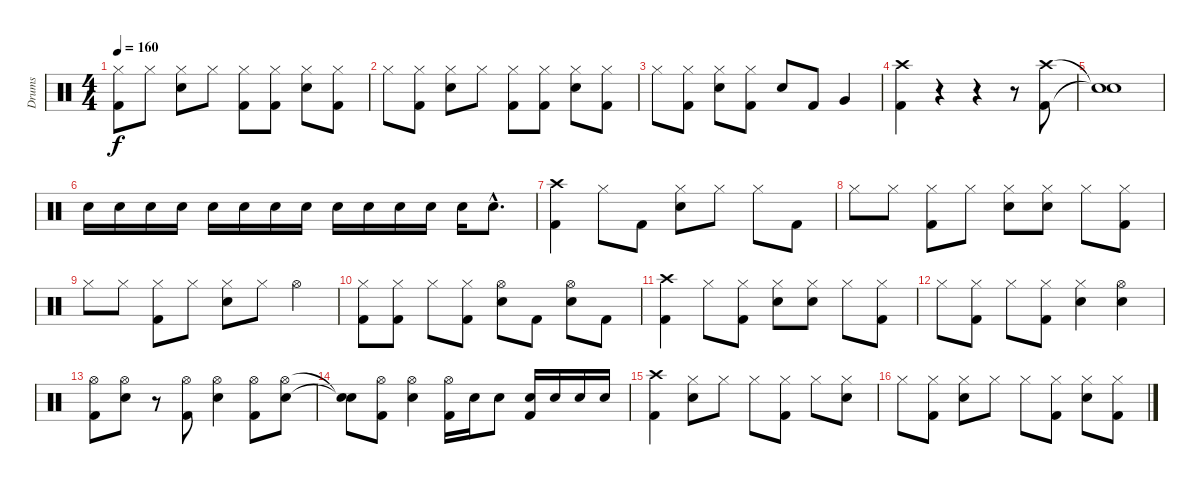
\track ("Drums" "Drums") {instrument percussion}
\staff {score}
\articulation defaults
\ts (4 4)
\tempo 160
\clef neutral
\ks c
("Hi-Hat (closed)" "Kick (hit) 2").8{dy f} "Hi-Hat (closed)".8 ("Hi-Hat (closed)" "Snare (hit) 2").8 "Hi-Hat (closed)".8 ("Hi-Hat (closed)" "Kick (hit) 2").8 ("Hi-Hat (closed)" "Kick (hit) 2").8 ("Hi-Hat (closed)" "Snare (hit) 2").8 ("Hi-Hat (closed)" "Kick (hit) 2").8 |
"Hi-Hat (closed)".8 ("Hi-Hat (closed)" "Kick (hit) 2").8 ("Hi-Hat (closed)" "Snare (hit) 2").8 "Hi-Hat (closed)".8 ("Hi-Hat (closed)" "Kick (hit) 2").8 ("Hi-Hat (closed)" "Kick (hit) 2").8 ("Hi-Hat (closed)" "Snare (hit) 2").8 ("Hi-Hat (closed)" "Kick (hit) 2").8 |
"Hi-Hat (closed)".8 ("Hi-Hat (closed)" "Kick (hit) 2").8 ("Hi-Hat (closed)" "Snare (hit) 2").8 ("Hi-Hat (closed)" "Kick (hit) 2").8 "Snare (hit) 2".8 "Kick (hit) 2".8 "Very Low Tom (hit)".4 |
("Crash high (hit)" "Kick (hit) 2").4 r.4 r.4 r.8 ("Crash high (hit)" "Kick (hit) 2").8 |
("Snare (hit)"{t} "Snare (hit)"{t}).1 |
"Snare (hit) 2".16 "Snare (hit) 2".16 "Snare (hit) 2".16 "Snare (hit) 2".16 "Snare (hit) 2".16 "Snare (hit) 2".16 "Snare (hit) 2".16 "Snare (hit) 2".16 "Snare (hit) 2".16 "Snare (hit) 2".16 "Snare (hit) 2".16 "Snare (hit) 2".16 "Snare (hit) 2".16 "Snare (hit) 2"{hac}.8{d} |
("Crash high (hit)" "Kick (hit) 2").4 "Hi-Hat (closed)".8 "Kick (hit) 2".8 ("Hi-Hat (closed)" "Snare (hit) 2").8 "Hi-Hat (closed)".8 "Hi-Hat (closed)".8 "Kick (hit) 2".8 |
"Hi-Hat (closed)".8 "Hi-Hat (closed)".8 ("Hi-Hat (closed)" "Kick (hit) 2").8 "Hi-Hat (closed)".8 ("Hi-Hat (closed)" "Snare (hit) 2").8 ("Hi-Hat (closed)" "Snare (hit) 2").8 "Hi-Hat (closed)".8 ("Hi-Hat (closed)" "Kick (hit) 2").8 |
"Hi-Hat (closed)".8 "Hi-Hat (closed)".8 ("Hi-Hat (closed)" "Kick (hit) 2").8 "Hi-Hat (closed)".8 ("Hi-Hat (closed)" "Snare (hit) 2").8 "Hi-Hat (closed)".8 "Hi-Hat (open)".4 |
("Hi-Hat (closed)" "Kick (hit) 2").8 ("Hi-Hat (closed)" "Kick (hit) 2").8 "Hi-Hat (closed)".8 ("Hi-Hat (closed)" "Kick (hit) 2").8 ("Hi-Hat (open)" "Snare (hit) 2").8 "Kick (hit) 2".8 ("Hi-Hat (open)" "Snare (hit) 2").8 "Kick (hit) 2".8 |
("Crash high (hit)" "Kick (hit) 2").4 "Hi-Hat (closed)".8 ("Hi-Hat (closed)" "Kick (hit) 2").8 ("Hi-Hat (closed)" "Snare (hit) 2").8 ("Hi-Hat (closed)" "Snare (hit) 2").8 "Hi-Hat (closed)".8 ("Hi-Hat (closed)" "Kick (hit) 2").8 |
"Hi-Hat (closed)".8 ("Hi-Hat (closed)" "Kick (hit) 2").8 "Hi-Hat (closed)".8 ("Hi-Hat (closed)" "Kick (hit) 2").8 ("Hi-Hat (closed)" "Snare (hit) 2").4 ("Hi-Hat (open)" "Snare (hit) 2").4 |
("Hi-Hat (open)" "Kick (hit) 2").8 ("Hi-Hat (open)" "Snare (hit) 2").8 r.8 ("Hi-Hat (open)" "Kick (hit) 2").8 ("Hi-Hat (open)" "Snare (hit) 2").4 ("Hi-Hat (open)" "Kick (hit) 2").8 ("Hi-Hat (open)" "Snare (hit) 2").8 |
("Snare (hit)"{t} "Snare (hit)"{t}).8 ("Hi-Hat (open)" "Kick (hit) 2").8 ("Hi-Hat (open)" "Snare (hit) 2").4 ("Hi-Hat (open)" "Kick (hit) 2").16 "Snare (hit) 2".16 "Snare (hit) 2".8 ("Snare (hit) 2" "Kick (hit) 2").16 "Snare (hit) 2".16 "Snare (hit) 2".16 "Snare (hit) 2".16 |
("Crash high (hit)" "Kick (hit) 2").4 ("Hi-Hat (closed)" "Snare (hit) 2").8 "Hi-Hat (closed)".8 "Hi-Hat (closed)".8 ("Hi-Hat (closed)" "Kick (hit) 2").8 "Hi-Hat (closed)".8 ("Hi-Hat (closed)" "Snare (hit) 2").8 |
"Hi-Hat (closed)".8 ("Hi-Hat (closed)" "Kick (hit) 2").8 ("Hi-Hat (closed)" "Snare (hit) 2").8 "Hi-Hat (closed)".8 "Hi-Hat (closed)".8 ("Hi-Hat (closed)" "Kick (hit) 2").8 ("Hi-Hat (closed)" "Snare (hit) 2").8 ("Hi-Hat (closed)" "Kick (hit) 2").8
